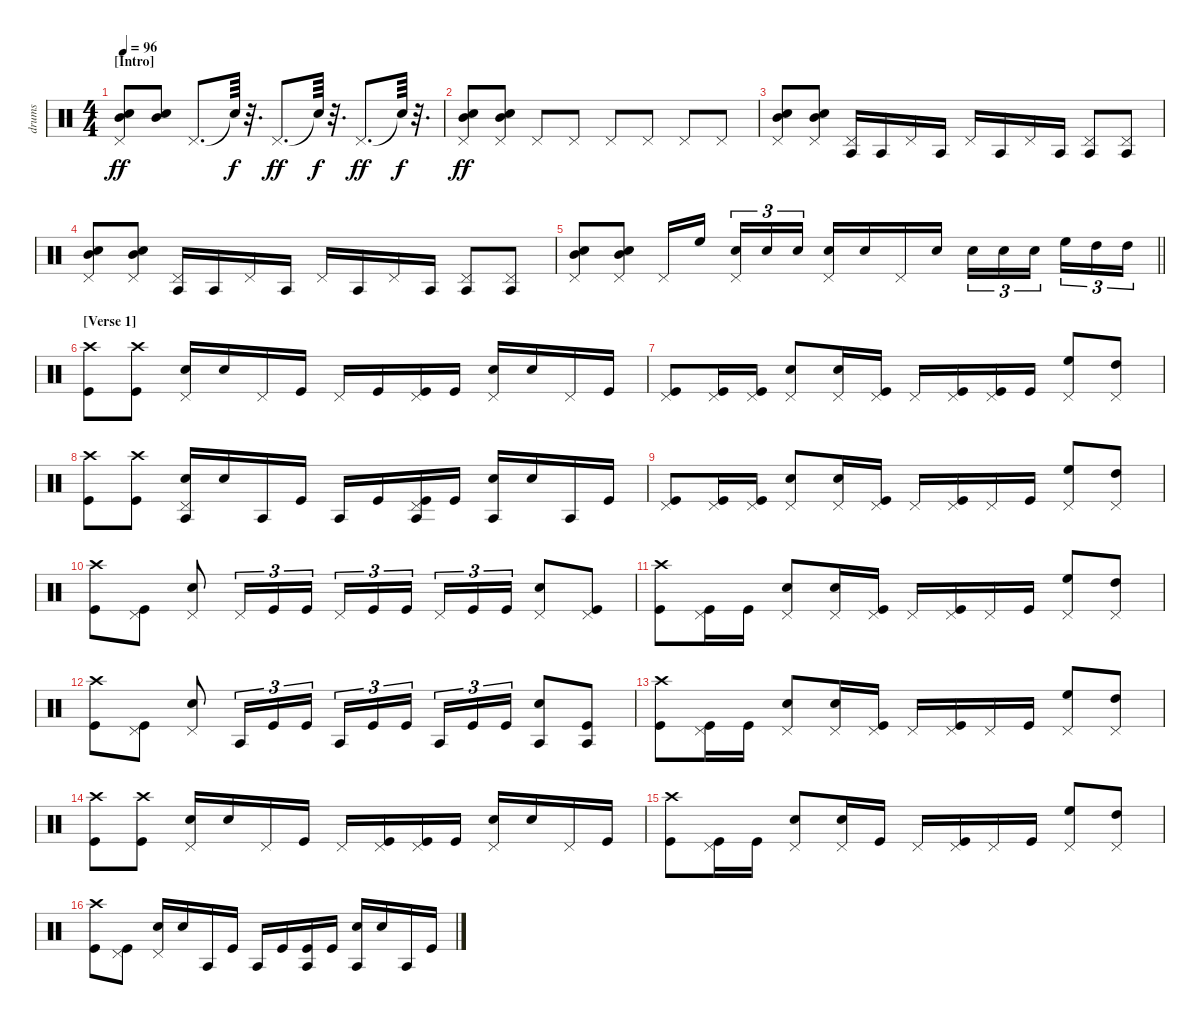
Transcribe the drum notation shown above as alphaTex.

\track ("drums" "drums") {instrument percussion}
\staff {score}
\articulation defaults
\ts (4 4)
\section ("" "[Intro]")
\tempo 96
\clef neutral
\ks c
("Pedal Hi-Hat (hit)" "Snare (hit) 2" "Mid Tom (hit)").8{dy ff} ("Snare (hit) 2" "Mid Tom (hit)").8 "Pedal Hi-Hat (hit)".8{d} "Snare (hit)"{t}.64{dy f} r.32{d} "Pedal Hi-Hat (hit)".8{d dy ff} "Snare (hit)"{t}.64{dy f} r.32{d} "Pedal Hi-Hat (hit)".8{d dy ff} "Snare (hit)"{t}.64{dy f} r.32{d} |
("Pedal Hi-Hat (hit)" "Snare (hit) 2" "Mid Tom (hit)").8{dy ff} ("Pedal Hi-Hat (hit)" "Snare (hit) 2" "Mid Tom (hit)").8 "Pedal Hi-Hat (hit)".8 "Pedal Hi-Hat (hit)".8 "Pedal Hi-Hat (hit)".8 "Pedal Hi-Hat (hit)".8 "Pedal Hi-Hat (hit)".8 "Pedal Hi-Hat (hit)".8 |
("Pedal Hi-Hat (hit)" "Snare (hit) 2" "Mid Tom (hit)").8 ("Pedal Hi-Hat (hit)" "Snare (hit) 2" "Mid Tom (hit)").8 ("Pedal Hi-Hat (hit)" "Agogo tow (hit)").16 "Agogo tow (hit)".16 "Pedal Hi-Hat (hit)".16 "Agogo tow (hit)".16 "Pedal Hi-Hat (hit)".16 "Agogo tow (hit)".16 "Pedal Hi-Hat (hit)".16 "Agogo tow (hit)".16 ("Pedal Hi-Hat (hit)" "Agogo tow (hit)").8 ("Pedal Hi-Hat (hit)" "Agogo tow (hit)").8 |
("Pedal Hi-Hat (hit)" "Snare (hit) 2" "Mid Tom (hit)").8 ("Pedal Hi-Hat (hit)" "Snare (hit) 2" "Mid Tom (hit)").8 ("Pedal Hi-Hat (hit)" "Agogo tow (hit)").16 "Agogo tow (hit)".16 "Pedal Hi-Hat (hit)".16 "Agogo tow (hit)".16 "Pedal Hi-Hat (hit)".16 "Agogo tow (hit)".16 "Pedal Hi-Hat (hit)".16 "Agogo tow (hit)".16 ("Pedal Hi-Hat (hit)" "Agogo tow (hit)").8 ("Pedal Hi-Hat (hit)" "Agogo tow (hit)").8 |
\barLineRight lightlight
("Pedal Hi-Hat (hit)" "Snare (hit) 2" "Mid Tom (hit)").8 ("Pedal Hi-Hat (hit)" "Snare (hit) 2" "Mid Tom (hit)").8 "Pedal Hi-Hat (hit)".16 "High Floor Tom (hit)".16 ("Pedal Hi-Hat (hit)" "Snare (hit) 2").16{tu (3 2)} "Snare (hit) 2".16{tu (3 2)} "Snare (hit) 2".16{tu (3 2)} ("Pedal Hi-Hat (hit)" "Snare (hit) 2").16 "Snare (hit) 2".16 "Pedal Hi-Hat (hit)".16 "Snare (hit) 2".16 "Snare (hit) 2".16{tu (3 2)} "Snare (hit) 2".16{tu (3 2)} "Snare (hit) 2".16{tu (3 2)} "High Floor Tom (hit)".16{tu (3 2)} "High Tom (hit)".16{tu (3 2)} "High Tom (hit)".16{tu (3 2)} |
\section ("" "[Verse 1]")
("Crash high (hit)" "Kick (hit)").8 ("Crash high (hit)" "Kick (hit)").8 ("Pedal Hi-Hat (hit)" "Snare (hit) 2").16 "Snare (hit) 2".16 "Pedal Hi-Hat (hit)".16 "Kick (hit)".16 "Pedal Hi-Hat (hit)".16 "Kick (hit)".16 ("Pedal Hi-Hat (hit)" "Kick (hit)").16 "Kick (hit)".16 ("Pedal Hi-Hat (hit)" "Snare (hit) 2").16 "Snare (hit) 2".16 "Pedal Hi-Hat (hit)".16 "Kick (hit)".16 |
("Pedal Hi-Hat (hit)" "Kick (hit)").8 ("Pedal Hi-Hat (hit)" "Kick (hit)").16 ("Pedal Hi-Hat (hit)" "Kick (hit)").16 ("Pedal Hi-Hat (hit)" "Snare (hit) 2").8 ("Pedal Hi-Hat (hit)" "Snare (hit) 2").16 ("Pedal Hi-Hat (hit)" "Kick (hit)").16 "Pedal Hi-Hat (hit)".16 ("Pedal Hi-Hat (hit)" "Kick (hit)").16 ("Pedal Hi-Hat (hit)" "Kick (hit)").16 "Kick (hit)".16 ("Pedal Hi-Hat (hit)" "High Floor Tom (hit)").8 ("Pedal Hi-Hat (hit)" "High Tom (hit)").8 |
("Crash high (hit)" "Kick (hit)").8 ("Crash high (hit)" "Kick (hit)").8 ("Pedal Hi-Hat (hit)" "Agogo tow (hit)" "Snare (hit) 2").16 "Snare (hit) 2".16 "Agogo tow (hit)".16 "Kick (hit)".16 "Agogo tow (hit)".16 "Kick (hit)".16 ("Pedal Hi-Hat (hit)" "Agogo tow (hit)" "Kick (hit)").16 "Kick (hit)".16 ("Agogo tow (hit)" "Snare (hit) 2").16 "Snare (hit) 2".16 "Agogo tow (hit)".16 "Kick (hit)".16 |
("Pedal Hi-Hat (hit)" "Kick (hit)").8 ("Pedal Hi-Hat (hit)" "Kick (hit)").16 ("Pedal Hi-Hat (hit)" "Kick (hit)").16 ("Pedal Hi-Hat (hit)" "Snare (hit) 2").8 ("Pedal Hi-Hat (hit)" "Snare (hit) 2").16 ("Pedal Hi-Hat (hit)" "Kick (hit)").16 "Pedal Hi-Hat (hit)".16 ("Pedal Hi-Hat (hit)" "Kick (hit)").16 "Pedal Hi-Hat (hit)".16 "Kick (hit)".16 ("Pedal Hi-Hat (hit)" "High Floor Tom (hit)").8 ("Pedal Hi-Hat (hit)" "High Tom (hit)").8 |
("Crash high (hit)" "Kick (hit)").8 ("Pedal Hi-Hat (hit)" "Kick (hit)").8 ("Pedal Hi-Hat (hit)" "Snare (hit) 2").8 "Pedal Hi-Hat (hit)".16{tu (3 2)} "Kick (hit)".16{tu (3 2)} "Kick (hit)".16{tu (3 2)} "Pedal Hi-Hat (hit)".16{tu (3 2)} "Kick (hit)".16{tu (3 2)} "Kick (hit)".16{tu (3 2)} "Pedal Hi-Hat (hit)".16{tu (3 2)} "Kick (hit)".16{tu (3 2)} "Kick (hit)".16{tu (3 2)} ("Pedal Hi-Hat (hit)" "Snare (hit) 2").8 ("Pedal Hi-Hat (hit)" "Kick (hit)").8 |
("Crash high (hit)" "Kick (hit)").8 ("Pedal Hi-Hat (hit)" "Kick (hit)").16 "Kick (hit)".16 ("Pedal Hi-Hat (hit)" "Snare (hit) 2").8 ("Pedal Hi-Hat (hit)" "Snare (hit) 2").16 ("Pedal Hi-Hat (hit)" "Kick (hit)").16 "Pedal Hi-Hat (hit)".16 ("Pedal Hi-Hat (hit)" "Kick (hit)").16 "Pedal Hi-Hat (hit)".16 "Kick (hit)".16 ("Pedal Hi-Hat (hit)" "High Floor Tom (hit)").8 ("Pedal Hi-Hat (hit)" "High Tom (hit)").8 |
("Crash high (hit)" "Kick (hit)").8 ("Pedal Hi-Hat (hit)" "Kick (hit)").8 ("Pedal Hi-Hat (hit)" "Snare (hit) 2").8 "Agogo tow (hit)".16{tu (3 2)} "Kick (hit)".16{tu (3 2)} "Kick (hit)".16{tu (3 2)} "Agogo tow (hit)".16{tu (3 2)} "Kick (hit)".16{tu (3 2)} "Kick (hit)".16{tu (3 2)} "Agogo tow (hit)".16{tu (3 2)} "Kick (hit)".16{tu (3 2)} "Kick (hit)".16{tu (3 2)} ("Agogo tow (hit)" "Snare (hit) 2").8 ("Agogo tow (hit)" "Kick (hit)").8 |
("Crash high (hit)" "Kick (hit)").8 ("Pedal Hi-Hat (hit)" "Kick (hit)").16 "Kick (hit)".16 ("Pedal Hi-Hat (hit)" "Snare (hit) 2").8 ("Pedal Hi-Hat (hit)" "Snare (hit) 2").16 ("Pedal Hi-Hat (hit)" "Kick (hit)").16 "Pedal Hi-Hat (hit)".16 ("Pedal Hi-Hat (hit)" "Kick (hit)").16 "Pedal Hi-Hat (hit)".16 "Kick (hit)".16 ("Pedal Hi-Hat (hit)" "High Floor Tom (hit)").8 ("Pedal Hi-Hat (hit)" "High Tom (hit)").8 |
("Crash high (hit)" "Kick (hit)").8 ("Crash high (hit)" "Kick (hit)").8 ("Pedal Hi-Hat (hit)" "Snare (hit) 2").16 "Snare (hit) 2".16 "Pedal Hi-Hat (hit)".16 "Kick (hit)".16 "Pedal Hi-Hat (hit)".16 ("Pedal Hi-Hat (hit)" "Kick (hit)").16 ("Pedal Hi-Hat (hit)" "Kick (hit)").16 "Kick (hit)".16 ("Pedal Hi-Hat (hit)" "Snare (hit) 2").16 "Snare (hit) 2".16 "Pedal Hi-Hat (hit)".16 "Kick (hit)".16 |
("Crash high (hit)" "Kick (hit)").8 ("Pedal Hi-Hat (hit)" "Kick (hit)").16 "Kick (hit)".16 ("Pedal Hi-Hat (hit)" "Snare (hit) 2").8 ("Pedal Hi-Hat (hit)" "Snare (hit) 2").16 "Kick (hit)".16 "Pedal Hi-Hat (hit)".16 ("Pedal Hi-Hat (hit)" "Kick (hit)").16 "Pedal Hi-Hat (hit)".16 "Kick (hit)".16 ("Pedal Hi-Hat (hit)" "High Floor Tom (hit)").8 ("Pedal Hi-Hat (hit)" "High Tom (hit)").8 |
("Crash high (hit)" "Kick (hit)").8 ("Pedal Hi-Hat (hit)" "Kick (hit)").8 ("Pedal Hi-Hat (hit)" "Snare (hit) 2").16 "Snare (hit) 2".16 "Agogo tow (hit)".16 "Kick (hit)".16 "Agogo tow (hit)".16 "Kick (hit)".16 ("Agogo tow (hit)" "Kick (hit)").16 "Kick (hit)".16 ("Agogo tow (hit)" "Snare (hit) 2").16 "Snare (hit) 2".16 "Agogo tow (hit)".16 "Kick (hit)".16
